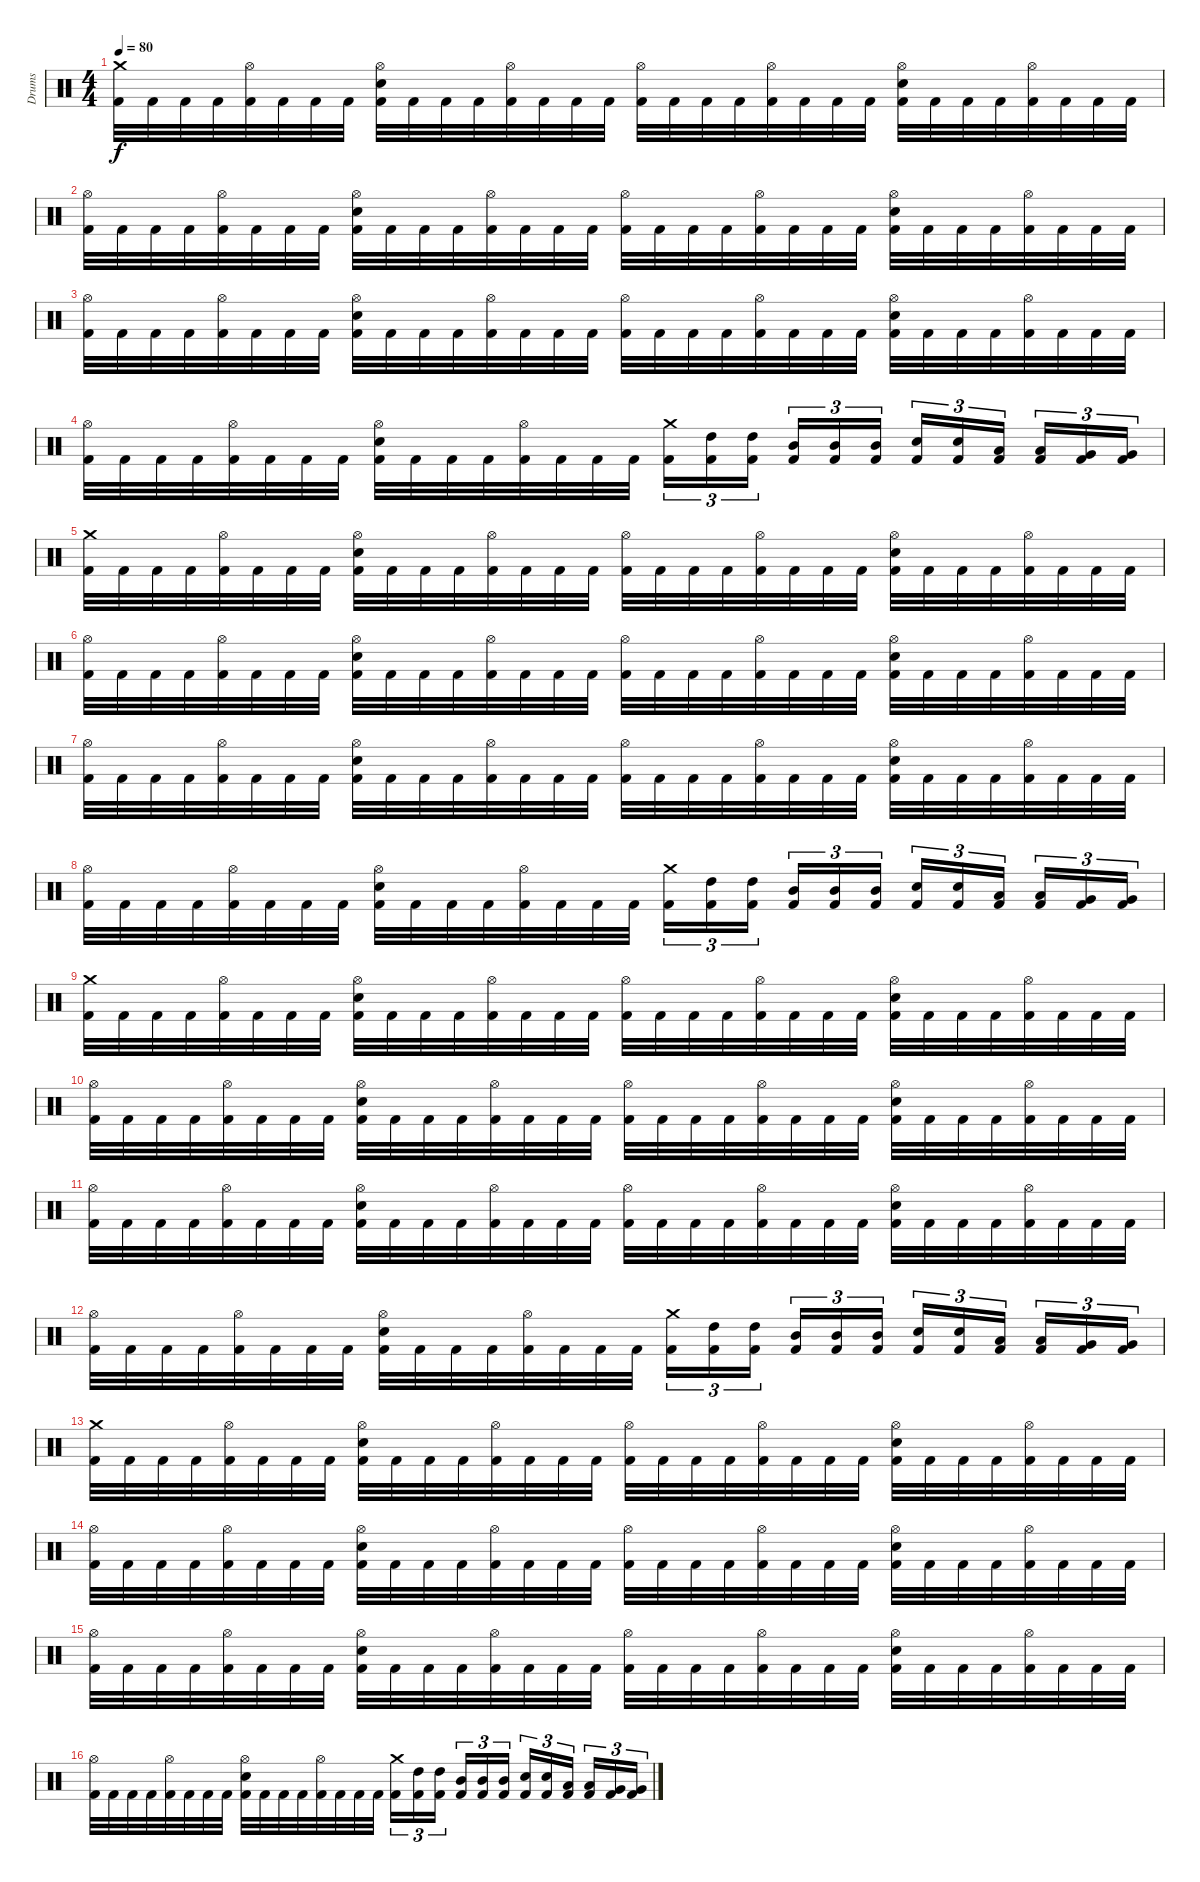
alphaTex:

\track ("Drums" "Drums") {instrument percussion}
\staff {score}
\articulation defaults
\ts (4 4)
\tempo 80
\clef neutral
\ks c
("Crash medium (hit)" "Kick (hit) 2").32{dy f} "Kick (hit) 2".32 "Kick (hit) 2".32 "Kick (hit) 2".32 ("Hi-Hat (open)" "Kick (hit) 2").32 "Kick (hit) 2".32 "Kick (hit) 2".32 "Kick (hit) 2".32 ("Hi-Hat (open)" "Electric Snare (hit)" "Kick (hit) 2").32 "Kick (hit) 2".32 "Kick (hit) 2".32 "Kick (hit) 2".32 ("Hi-Hat (open)" "Kick (hit) 2").32 "Kick (hit) 2".32 "Kick (hit) 2".32 "Kick (hit) 2".32 ("Hi-Hat (open)" "Kick (hit) 2").32 "Kick (hit) 2".32 "Kick (hit) 2".32 "Kick (hit) 2".32 ("Hi-Hat (open)" "Kick (hit) 2").32 "Kick (hit) 2".32 "Kick (hit) 2".32 "Kick (hit) 2".32 ("Hi-Hat (open)" "Electric Snare (hit)" "Kick (hit) 2").32 "Kick (hit) 2".32 "Kick (hit) 2".32 "Kick (hit) 2".32 ("Hi-Hat (open)" "Kick (hit) 2").32 "Kick (hit) 2".32 "Kick (hit) 2".32 "Kick (hit) 2".32 |
("Hi-Hat (open)" "Kick (hit) 2").32 "Kick (hit) 2".32 "Kick (hit) 2".32 "Kick (hit) 2".32 ("Hi-Hat (open)" "Kick (hit) 2").32 "Kick (hit) 2".32 "Kick (hit) 2".32 "Kick (hit) 2".32 ("Hi-Hat (open)" "Electric Snare (hit)" "Kick (hit) 2").32 "Kick (hit) 2".32 "Kick (hit) 2".32 "Kick (hit) 2".32 ("Hi-Hat (open)" "Kick (hit) 2").32 "Kick (hit) 2".32 "Kick (hit) 2".32 "Kick (hit) 2".32 ("Hi-Hat (open)" "Kick (hit) 2").32 "Kick (hit) 2".32 "Kick (hit) 2".32 "Kick (hit) 2".32 ("Hi-Hat (open)" "Kick (hit) 2").32 "Kick (hit) 2".32 "Kick (hit) 2".32 "Kick (hit) 2".32 ("Hi-Hat (open)" "Electric Snare (hit)" "Kick (hit) 2").32 "Kick (hit) 2".32 "Kick (hit) 2".32 "Kick (hit) 2".32 ("Hi-Hat (open)" "Kick (hit) 2").32 "Kick (hit) 2".32 "Kick (hit) 2".32 "Kick (hit) 2".32 |
("Hi-Hat (open)" "Kick (hit) 2").32 "Kick (hit) 2".32 "Kick (hit) 2".32 "Kick (hit) 2".32 ("Hi-Hat (open)" "Kick (hit) 2").32 "Kick (hit) 2".32 "Kick (hit) 2".32 "Kick (hit) 2".32 ("Hi-Hat (open)" "Electric Snare (hit)" "Kick (hit) 2").32 "Kick (hit) 2".32 "Kick (hit) 2".32 "Kick (hit) 2".32 ("Hi-Hat (open)" "Kick (hit) 2").32 "Kick (hit) 2".32 "Kick (hit) 2".32 "Kick (hit) 2".32 ("Hi-Hat (open)" "Kick (hit) 2").32 "Kick (hit) 2".32 "Kick (hit) 2".32 "Kick (hit) 2".32 ("Hi-Hat (open)" "Kick (hit) 2").32 "Kick (hit) 2".32 "Kick (hit) 2".32 "Kick (hit) 2".32 ("Hi-Hat (open)" "Electric Snare (hit)" "Kick (hit) 2").32 "Kick (hit) 2".32 "Kick (hit) 2".32 "Kick (hit) 2".32 ("Hi-Hat (open)" "Kick (hit) 2").32 "Kick (hit) 2".32 "Kick (hit) 2".32 "Kick (hit) 2".32 |
("Hi-Hat (open)" "Kick (hit) 2").32 "Kick (hit) 2".32 "Kick (hit) 2".32 "Kick (hit) 2".32 ("Hi-Hat (open)" "Kick (hit) 2").32 "Kick (hit) 2".32 "Kick (hit) 2".32 "Kick (hit) 2".32 ("Hi-Hat (open)" "Electric Snare (hit)" "Kick (hit) 2").32 "Kick (hit) 2".32 "Kick (hit) 2".32 "Kick (hit) 2".32 ("Hi-Hat (open)" "Kick (hit) 2").32 "Kick (hit) 2".32 "Kick (hit) 2".32 "Kick (hit) 2".32 ("Crash medium (hit)" "Kick (hit) 2").16{tu (3 2)} ("High Tom (hit)" "Kick (hit) 2").16{tu (3 2)} ("High Tom (hit)" "Kick (hit) 2").16{tu (3 2) beam splitsecondary} ("Mid Tom (hit)" "Kick (hit) 2").16{tu (3 2)} ("Mid Tom (hit)" "Kick (hit) 2").16{tu (3 2)} ("Mid Tom (hit)" "Kick (hit) 2").16{tu (3 2)} ("Electric Snare (hit)" "Kick (hit) 2").16{tu (3 2)} ("Electric Snare (hit)" "Kick (hit) 2").16{tu (3 2)} ("Low Tom (hit)" "Kick (hit) 2").16{tu (3 2) beam splitsecondary} ("Low Tom (hit)" "Kick (hit) 2").16{tu (3 2)} ("Very Low Tom (hit)" "Kick (hit) 2").16{tu (3 2)} ("Very Low Tom (hit)" "Kick (hit) 2").16{tu (3 2)} |
("Crash medium (hit)" "Kick (hit) 2").32 "Kick (hit) 2".32 "Kick (hit) 2".32 "Kick (hit) 2".32 ("Hi-Hat (open)" "Kick (hit) 2").32 "Kick (hit) 2".32 "Kick (hit) 2".32 "Kick (hit) 2".32 ("Hi-Hat (open)" "Electric Snare (hit)" "Kick (hit) 2").32 "Kick (hit) 2".32 "Kick (hit) 2".32 "Kick (hit) 2".32 ("Hi-Hat (open)" "Kick (hit) 2").32 "Kick (hit) 2".32 "Kick (hit) 2".32 "Kick (hit) 2".32 ("Hi-Hat (open)" "Kick (hit) 2").32 "Kick (hit) 2".32 "Kick (hit) 2".32 "Kick (hit) 2".32 ("Hi-Hat (open)" "Kick (hit) 2").32 "Kick (hit) 2".32 "Kick (hit) 2".32 "Kick (hit) 2".32 ("Hi-Hat (open)" "Electric Snare (hit)" "Kick (hit) 2").32 "Kick (hit) 2".32 "Kick (hit) 2".32 "Kick (hit) 2".32 ("Hi-Hat (open)" "Kick (hit) 2").32 "Kick (hit) 2".32 "Kick (hit) 2".32 "Kick (hit) 2".32 |
("Hi-Hat (open)" "Kick (hit) 2").32 "Kick (hit) 2".32 "Kick (hit) 2".32 "Kick (hit) 2".32 ("Hi-Hat (open)" "Kick (hit) 2").32 "Kick (hit) 2".32 "Kick (hit) 2".32 "Kick (hit) 2".32 ("Hi-Hat (open)" "Electric Snare (hit)" "Kick (hit) 2").32 "Kick (hit) 2".32 "Kick (hit) 2".32 "Kick (hit) 2".32 ("Hi-Hat (open)" "Kick (hit) 2").32 "Kick (hit) 2".32 "Kick (hit) 2".32 "Kick (hit) 2".32 ("Hi-Hat (open)" "Kick (hit) 2").32 "Kick (hit) 2".32 "Kick (hit) 2".32 "Kick (hit) 2".32 ("Hi-Hat (open)" "Kick (hit) 2").32 "Kick (hit) 2".32 "Kick (hit) 2".32 "Kick (hit) 2".32 ("Hi-Hat (open)" "Electric Snare (hit)" "Kick (hit) 2").32 "Kick (hit) 2".32 "Kick (hit) 2".32 "Kick (hit) 2".32 ("Hi-Hat (open)" "Kick (hit) 2").32 "Kick (hit) 2".32 "Kick (hit) 2".32 "Kick (hit) 2".32 |
("Hi-Hat (open)" "Kick (hit) 2").32 "Kick (hit) 2".32 "Kick (hit) 2".32 "Kick (hit) 2".32 ("Hi-Hat (open)" "Kick (hit) 2").32 "Kick (hit) 2".32 "Kick (hit) 2".32 "Kick (hit) 2".32 ("Hi-Hat (open)" "Electric Snare (hit)" "Kick (hit) 2").32 "Kick (hit) 2".32 "Kick (hit) 2".32 "Kick (hit) 2".32 ("Hi-Hat (open)" "Kick (hit) 2").32 "Kick (hit) 2".32 "Kick (hit) 2".32 "Kick (hit) 2".32 ("Hi-Hat (open)" "Kick (hit) 2").32 "Kick (hit) 2".32 "Kick (hit) 2".32 "Kick (hit) 2".32 ("Hi-Hat (open)" "Kick (hit) 2").32 "Kick (hit) 2".32 "Kick (hit) 2".32 "Kick (hit) 2".32 ("Hi-Hat (open)" "Electric Snare (hit)" "Kick (hit) 2").32 "Kick (hit) 2".32 "Kick (hit) 2".32 "Kick (hit) 2".32 ("Hi-Hat (open)" "Kick (hit) 2").32 "Kick (hit) 2".32 "Kick (hit) 2".32 "Kick (hit) 2".32 |
("Hi-Hat (open)" "Kick (hit) 2").32 "Kick (hit) 2".32 "Kick (hit) 2".32 "Kick (hit) 2".32 ("Hi-Hat (open)" "Kick (hit) 2").32 "Kick (hit) 2".32 "Kick (hit) 2".32 "Kick (hit) 2".32 ("Hi-Hat (open)" "Electric Snare (hit)" "Kick (hit) 2").32 "Kick (hit) 2".32 "Kick (hit) 2".32 "Kick (hit) 2".32 ("Hi-Hat (open)" "Kick (hit) 2").32 "Kick (hit) 2".32 "Kick (hit) 2".32 "Kick (hit) 2".32 ("Crash medium (hit)" "Kick (hit) 2").16{tu (3 2)} ("High Tom (hit)" "Kick (hit) 2").16{tu (3 2)} ("High Tom (hit)" "Kick (hit) 2").16{tu (3 2) beam splitsecondary} ("Mid Tom (hit)" "Kick (hit) 2").16{tu (3 2)} ("Mid Tom (hit)" "Kick (hit) 2").16{tu (3 2)} ("Mid Tom (hit)" "Kick (hit) 2").16{tu (3 2)} ("Electric Snare (hit)" "Kick (hit) 2").16{tu (3 2)} ("Electric Snare (hit)" "Kick (hit) 2").16{tu (3 2)} ("Low Tom (hit)" "Kick (hit) 2").16{tu (3 2) beam splitsecondary} ("Low Tom (hit)" "Kick (hit) 2").16{tu (3 2)} ("Very Low Tom (hit)" "Kick (hit) 2").16{tu (3 2)} ("Very Low Tom (hit)" "Kick (hit) 2").16{tu (3 2)} |
("Crash medium (hit)" "Kick (hit) 2").32 "Kick (hit) 2".32 "Kick (hit) 2".32 "Kick (hit) 2".32 ("Hi-Hat (open)" "Kick (hit) 2").32 "Kick (hit) 2".32 "Kick (hit) 2".32 "Kick (hit) 2".32 ("Hi-Hat (open)" "Electric Snare (hit)" "Kick (hit) 2").32 "Kick (hit) 2".32 "Kick (hit) 2".32 "Kick (hit) 2".32 ("Hi-Hat (open)" "Kick (hit) 2").32 "Kick (hit) 2".32 "Kick (hit) 2".32 "Kick (hit) 2".32 ("Hi-Hat (open)" "Kick (hit) 2").32 "Kick (hit) 2".32 "Kick (hit) 2".32 "Kick (hit) 2".32 ("Hi-Hat (open)" "Kick (hit) 2").32 "Kick (hit) 2".32 "Kick (hit) 2".32 "Kick (hit) 2".32 ("Hi-Hat (open)" "Electric Snare (hit)" "Kick (hit) 2").32 "Kick (hit) 2".32 "Kick (hit) 2".32 "Kick (hit) 2".32 ("Hi-Hat (open)" "Kick (hit) 2").32 "Kick (hit) 2".32 "Kick (hit) 2".32 "Kick (hit) 2".32 |
("Hi-Hat (open)" "Kick (hit) 2").32 "Kick (hit) 2".32 "Kick (hit) 2".32 "Kick (hit) 2".32 ("Hi-Hat (open)" "Kick (hit) 2").32 "Kick (hit) 2".32 "Kick (hit) 2".32 "Kick (hit) 2".32 ("Hi-Hat (open)" "Electric Snare (hit)" "Kick (hit) 2").32 "Kick (hit) 2".32 "Kick (hit) 2".32 "Kick (hit) 2".32 ("Hi-Hat (open)" "Kick (hit) 2").32 "Kick (hit) 2".32 "Kick (hit) 2".32 "Kick (hit) 2".32 ("Hi-Hat (open)" "Kick (hit) 2").32 "Kick (hit) 2".32 "Kick (hit) 2".32 "Kick (hit) 2".32 ("Hi-Hat (open)" "Kick (hit) 2").32 "Kick (hit) 2".32 "Kick (hit) 2".32 "Kick (hit) 2".32 ("Hi-Hat (open)" "Electric Snare (hit)" "Kick (hit) 2").32 "Kick (hit) 2".32 "Kick (hit) 2".32 "Kick (hit) 2".32 ("Hi-Hat (open)" "Kick (hit) 2").32 "Kick (hit) 2".32 "Kick (hit) 2".32 "Kick (hit) 2".32 |
("Hi-Hat (open)" "Kick (hit) 2").32 "Kick (hit) 2".32 "Kick (hit) 2".32 "Kick (hit) 2".32 ("Hi-Hat (open)" "Kick (hit) 2").32 "Kick (hit) 2".32 "Kick (hit) 2".32 "Kick (hit) 2".32 ("Hi-Hat (open)" "Electric Snare (hit)" "Kick (hit) 2").32 "Kick (hit) 2".32 "Kick (hit) 2".32 "Kick (hit) 2".32 ("Hi-Hat (open)" "Kick (hit) 2").32 "Kick (hit) 2".32 "Kick (hit) 2".32 "Kick (hit) 2".32 ("Hi-Hat (open)" "Kick (hit) 2").32 "Kick (hit) 2".32 "Kick (hit) 2".32 "Kick (hit) 2".32 ("Hi-Hat (open)" "Kick (hit) 2").32 "Kick (hit) 2".32 "Kick (hit) 2".32 "Kick (hit) 2".32 ("Hi-Hat (open)" "Electric Snare (hit)" "Kick (hit) 2").32 "Kick (hit) 2".32 "Kick (hit) 2".32 "Kick (hit) 2".32 ("Hi-Hat (open)" "Kick (hit) 2").32 "Kick (hit) 2".32 "Kick (hit) 2".32 "Kick (hit) 2".32 |
("Hi-Hat (open)" "Kick (hit) 2").32 "Kick (hit) 2".32 "Kick (hit) 2".32 "Kick (hit) 2".32 ("Hi-Hat (open)" "Kick (hit) 2").32 "Kick (hit) 2".32 "Kick (hit) 2".32 "Kick (hit) 2".32 ("Hi-Hat (open)" "Electric Snare (hit)" "Kick (hit) 2").32 "Kick (hit) 2".32 "Kick (hit) 2".32 "Kick (hit) 2".32 ("Hi-Hat (open)" "Kick (hit) 2").32 "Kick (hit) 2".32 "Kick (hit) 2".32 "Kick (hit) 2".32 ("Crash medium (hit)" "Kick (hit) 2").16{tu (3 2)} ("High Tom (hit)" "Kick (hit) 2").16{tu (3 2)} ("High Tom (hit)" "Kick (hit) 2").16{tu (3 2) beam splitsecondary} ("Mid Tom (hit)" "Kick (hit) 2").16{tu (3 2)} ("Mid Tom (hit)" "Kick (hit) 2").16{tu (3 2)} ("Mid Tom (hit)" "Kick (hit) 2").16{tu (3 2)} ("Electric Snare (hit)" "Kick (hit) 2").16{tu (3 2)} ("Electric Snare (hit)" "Kick (hit) 2").16{tu (3 2)} ("Low Tom (hit)" "Kick (hit) 2").16{tu (3 2) beam splitsecondary} ("Low Tom (hit)" "Kick (hit) 2").16{tu (3 2)} ("Very Low Tom (hit)" "Kick (hit) 2").16{tu (3 2)} ("Very Low Tom (hit)" "Kick (hit) 2").16{tu (3 2)} |
("Crash medium (hit)" "Kick (hit) 2").32 "Kick (hit) 2".32 "Kick (hit) 2".32 "Kick (hit) 2".32 ("Hi-Hat (open)" "Kick (hit) 2").32 "Kick (hit) 2".32 "Kick (hit) 2".32 "Kick (hit) 2".32 ("Hi-Hat (open)" "Electric Snare (hit)" "Kick (hit) 2").32 "Kick (hit) 2".32 "Kick (hit) 2".32 "Kick (hit) 2".32 ("Hi-Hat (open)" "Kick (hit) 2").32 "Kick (hit) 2".32 "Kick (hit) 2".32 "Kick (hit) 2".32 ("Hi-Hat (open)" "Kick (hit) 2").32 "Kick (hit) 2".32 "Kick (hit) 2".32 "Kick (hit) 2".32 ("Hi-Hat (open)" "Kick (hit) 2").32 "Kick (hit) 2".32 "Kick (hit) 2".32 "Kick (hit) 2".32 ("Hi-Hat (open)" "Electric Snare (hit)" "Kick (hit) 2").32 "Kick (hit) 2".32 "Kick (hit) 2".32 "Kick (hit) 2".32 ("Hi-Hat (open)" "Kick (hit) 2").32 "Kick (hit) 2".32 "Kick (hit) 2".32 "Kick (hit) 2".32 |
("Hi-Hat (open)" "Kick (hit) 2").32 "Kick (hit) 2".32 "Kick (hit) 2".32 "Kick (hit) 2".32 ("Hi-Hat (open)" "Kick (hit) 2").32 "Kick (hit) 2".32 "Kick (hit) 2".32 "Kick (hit) 2".32 ("Hi-Hat (open)" "Electric Snare (hit)" "Kick (hit) 2").32 "Kick (hit) 2".32 "Kick (hit) 2".32 "Kick (hit) 2".32 ("Hi-Hat (open)" "Kick (hit) 2").32 "Kick (hit) 2".32 "Kick (hit) 2".32 "Kick (hit) 2".32 ("Hi-Hat (open)" "Kick (hit) 2").32 "Kick (hit) 2".32 "Kick (hit) 2".32 "Kick (hit) 2".32 ("Hi-Hat (open)" "Kick (hit) 2").32 "Kick (hit) 2".32 "Kick (hit) 2".32 "Kick (hit) 2".32 ("Hi-Hat (open)" "Electric Snare (hit)" "Kick (hit) 2").32 "Kick (hit) 2".32 "Kick (hit) 2".32 "Kick (hit) 2".32 ("Hi-Hat (open)" "Kick (hit) 2").32 "Kick (hit) 2".32 "Kick (hit) 2".32 "Kick (hit) 2".32 |
("Hi-Hat (open)" "Kick (hit) 2").32 "Kick (hit) 2".32 "Kick (hit) 2".32 "Kick (hit) 2".32 ("Hi-Hat (open)" "Kick (hit) 2").32 "Kick (hit) 2".32 "Kick (hit) 2".32 "Kick (hit) 2".32 ("Hi-Hat (open)" "Electric Snare (hit)" "Kick (hit) 2").32 "Kick (hit) 2".32 "Kick (hit) 2".32 "Kick (hit) 2".32 ("Hi-Hat (open)" "Kick (hit) 2").32 "Kick (hit) 2".32 "Kick (hit) 2".32 "Kick (hit) 2".32 ("Hi-Hat (open)" "Kick (hit) 2").32 "Kick (hit) 2".32 "Kick (hit) 2".32 "Kick (hit) 2".32 ("Hi-Hat (open)" "Kick (hit) 2").32 "Kick (hit) 2".32 "Kick (hit) 2".32 "Kick (hit) 2".32 ("Hi-Hat (open)" "Electric Snare (hit)" "Kick (hit) 2").32 "Kick (hit) 2".32 "Kick (hit) 2".32 "Kick (hit) 2".32 ("Hi-Hat (open)" "Kick (hit) 2").32 "Kick (hit) 2".32 "Kick (hit) 2".32 "Kick (hit) 2".32 |
("Hi-Hat (open)" "Kick (hit) 2").32 "Kick (hit) 2".32 "Kick (hit) 2".32 "Kick (hit) 2".32 ("Hi-Hat (open)" "Kick (hit) 2").32 "Kick (hit) 2".32 "Kick (hit) 2".32 "Kick (hit) 2".32 ("Hi-Hat (open)" "Electric Snare (hit)" "Kick (hit) 2").32 "Kick (hit) 2".32 "Kick (hit) 2".32 "Kick (hit) 2".32 ("Hi-Hat (open)" "Kick (hit) 2").32 "Kick (hit) 2".32 "Kick (hit) 2".32 "Kick (hit) 2".32 ("Crash medium (hit)" "Kick (hit) 2").16{tu (3 2)} ("High Tom (hit)" "Kick (hit) 2").16{tu (3 2)} ("High Tom (hit)" "Kick (hit) 2").16{tu (3 2) beam splitsecondary} ("Mid Tom (hit)" "Kick (hit) 2").16{tu (3 2)} ("Mid Tom (hit)" "Kick (hit) 2").16{tu (3 2)} ("Mid Tom (hit)" "Kick (hit) 2").16{tu (3 2)} ("Electric Snare (hit)" "Kick (hit) 2").16{tu (3 2)} ("Electric Snare (hit)" "Kick (hit) 2").16{tu (3 2)} ("Low Tom (hit)" "Kick (hit) 2").16{tu (3 2) beam splitsecondary} ("Low Tom (hit)" "Kick (hit) 2").16{tu (3 2)} ("Very Low Tom (hit)" "Kick (hit) 2").16{tu (3 2)} ("Very Low Tom (hit)" "Kick (hit) 2").16{tu (3 2)}
